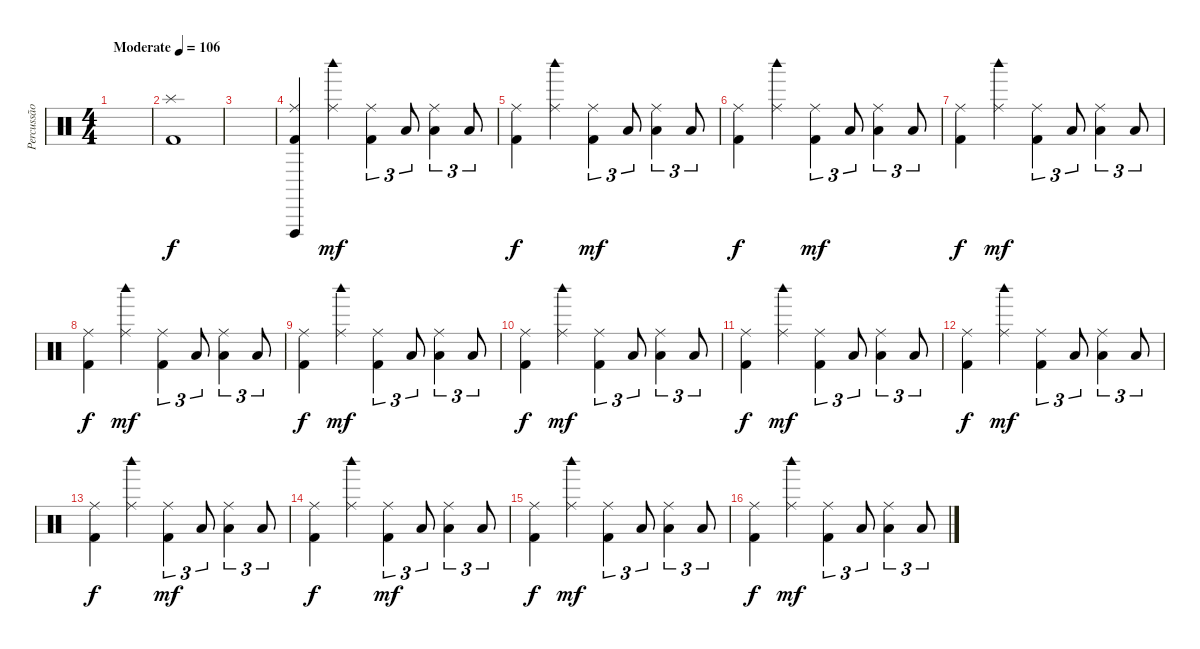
\track ("Percussão" "Percussão") {instrument percussion}
\staff {score}
\articulation defaults
\ts (4 4)
\tempo (106 "Moderate")
\clef neutral
\ks c
|
("Splash (hit)" "Kick (hit) 2").1 |
|
("Ride (middle)" "Vibraslap (hit)" "Kick (hit) 2").4 ("Ride (middle)" "Woodblock high (hit)").4{dy mf} ("Ride (middle)" "Kick (hit) 2").4{tu (3 2)} "Low Floor Tom (hit)".8{tu (3 2)} ("Ride (middle)" "Low Floor Tom (hit)").4{tu (3 2)} "Low Floor Tom (hit)".8{tu (3 2)} |
("Ride (middle)" "Kick (hit) 2").4{dy f} ("Ride (middle)" "Woodblock high (hit)").4 ("Ride (middle)" "Kick (hit) 2").4{tu (3 2) dy mf} "Low Floor Tom (hit)".8{tu (3 2)} ("Ride (middle)" "Low Floor Tom (hit)").4{tu (3 2)} "Low Floor Tom (hit)".8{tu (3 2)} |
("Ride (middle)" "Kick (hit) 2").4{dy f} ("Ride (middle)" "Woodblock high (hit)").4 ("Ride (middle)" "Kick (hit) 2").4{tu (3 2) dy mf} "Low Floor Tom (hit)".8{tu (3 2)} ("Ride (middle)" "Low Floor Tom (hit)").4{tu (3 2)} "Low Floor Tom (hit)".8{tu (3 2)} |
("Ride (middle)" "Kick (hit) 2").4{dy f} ("Ride (middle)" "Woodblock high (hit)").4{dy mf} ("Ride (middle)" "Kick (hit) 2").4{tu (3 2)} "Low Floor Tom (hit)".8{tu (3 2)} ("Ride (middle)" "Low Floor Tom (hit)").4{tu (3 2)} "Low Floor Tom (hit)".8{tu (3 2)} |
("Ride (middle)" "Kick (hit) 2").4{dy f} ("Ride (middle)" "Woodblock high (hit)").4{dy mf} ("Ride (middle)" "Kick (hit) 2").4{tu (3 2)} "Low Floor Tom (hit)".8{tu (3 2)} ("Ride (middle)" "Low Floor Tom (hit)").4{tu (3 2)} "Low Floor Tom (hit)".8{tu (3 2)} |
("Ride (middle)" "Kick (hit) 2").4{dy f} ("Ride (middle)" "Woodblock high (hit)").4{dy mf} ("Ride (middle)" "Kick (hit) 2").4{tu (3 2)} "Low Floor Tom (hit)".8{tu (3 2)} ("Ride (middle)" "Low Floor Tom (hit)").4{tu (3 2)} "Low Floor Tom (hit)".8{tu (3 2)} |
("Ride (middle)" "Kick (hit) 2").4{dy f} ("Ride (middle)" "Woodblock high (hit)").4{dy mf} ("Ride (middle)" "Kick (hit) 2").4{tu (3 2)} "Low Floor Tom (hit)".8{tu (3 2)} ("Ride (middle)" "Low Floor Tom (hit)").4{tu (3 2)} "Low Floor Tom (hit)".8{tu (3 2)} |
("Ride (middle)" "Kick (hit) 2").4{dy f} ("Ride (middle)" "Woodblock high (hit)").4{dy mf} ("Ride (middle)" "Kick (hit) 2").4{tu (3 2)} "Low Floor Tom (hit)".8{tu (3 2)} ("Ride (middle)" "Low Floor Tom (hit)").4{tu (3 2)} "Low Floor Tom (hit)".8{tu (3 2)} |
("Ride (middle)" "Kick (hit) 2").4{dy f} ("Ride (middle)" "Woodblock high (hit)").4{dy mf} ("Ride (middle)" "Kick (hit) 2").4{tu (3 2)} "Low Floor Tom (hit)".8{tu (3 2)} ("Ride (middle)" "Low Floor Tom (hit)").4{tu (3 2)} "Low Floor Tom (hit)".8{tu (3 2)} |
("Ride (middle)" "Kick (hit) 2").4{dy f} ("Ride (middle)" "Woodblock high (hit)").4 ("Ride (middle)" "Kick (hit) 2").4{tu (3 2) dy mf} "Low Floor Tom (hit)".8{tu (3 2)} ("Ride (middle)" "Low Floor Tom (hit)").4{tu (3 2)} "Low Floor Tom (hit)".8{tu (3 2)} |
("Ride (middle)" "Kick (hit) 2").4{dy f} ("Ride (middle)" "Woodblock high (hit)").4 ("Ride (middle)" "Kick (hit) 2").4{tu (3 2) dy mf} "Low Floor Tom (hit)".8{tu (3 2)} ("Ride (middle)" "Low Floor Tom (hit)").4{tu (3 2)} "Low Floor Tom (hit)".8{tu (3 2)} |
("Ride (middle)" "Kick (hit) 2").4{dy f} ("Ride (middle)" "Woodblock high (hit)").4{dy mf} ("Ride (middle)" "Kick (hit) 2").4{tu (3 2)} "Low Floor Tom (hit)".8{tu (3 2)} ("Ride (middle)" "Low Floor Tom (hit)").4{tu (3 2)} "Low Floor Tom (hit)".8{tu (3 2)} |
("Ride (middle)" "Kick (hit) 2").4{dy f} ("Ride (middle)" "Woodblock high (hit)").4{dy mf} ("Ride (middle)" "Kick (hit) 2").4{tu (3 2)} "Low Floor Tom (hit)".8{tu (3 2)} ("Ride (middle)" "Low Floor Tom (hit)").4{tu (3 2)} "Low Floor Tom (hit)".8{tu (3 2)}
